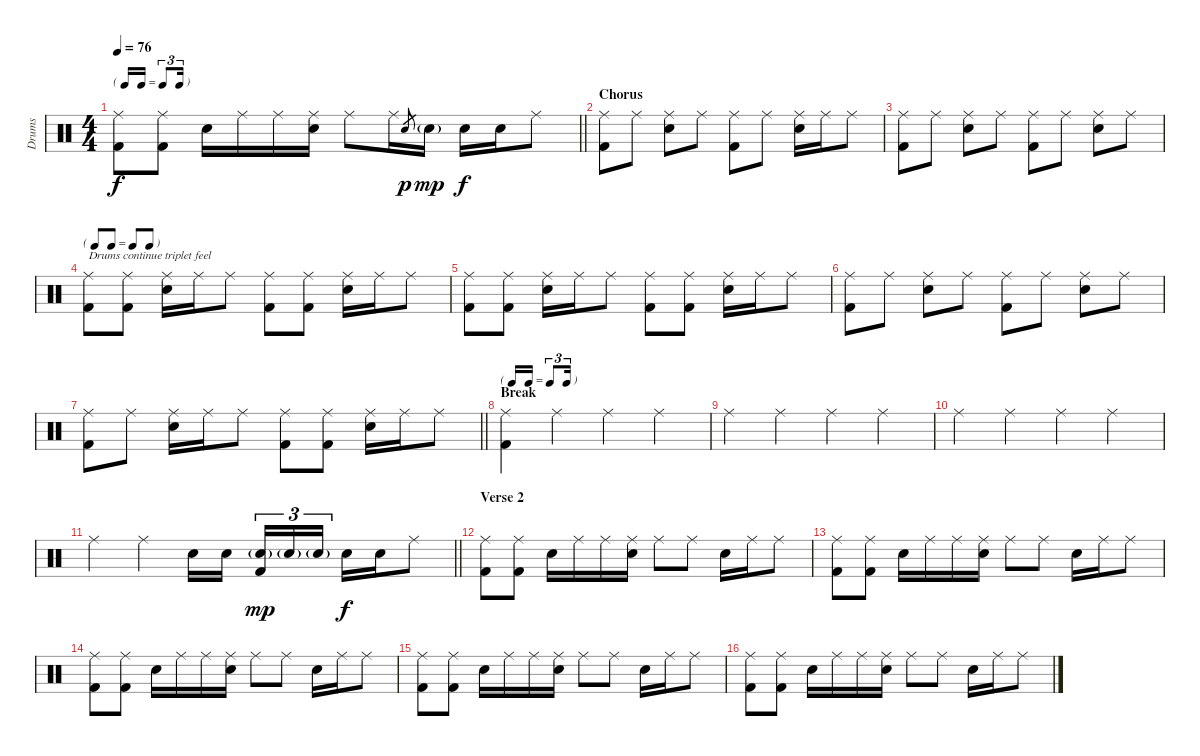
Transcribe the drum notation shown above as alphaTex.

\track ("Drums" "Drums") {instrument percussion}
\staff {score}
\articulation defaults
\ts (4 4)
\tf triplet16th
\tempo 76
\clef neutral
\barLineRight lightlight
\ks c
("Ride (middle)" "Kick (hit) 2").8{dy f} ("Ride (middle)" "Kick (hit) 2").8 "Electric Snare (hit)".16 "Ride (middle)".16 "Ride (middle)".16 ("Ride (middle)" "Electric Snare (hit)").16 "Ride (middle)".8 "Ride (middle)".16 "Electric Snare (hit)".8{gr dy p} "Electric Snare (hit)"{g}.16{dy mp} "Electric Snare (hit)".16{dy f} "Electric Snare (hit)".16 "Ride (middle)".8 |
\section ("" "Chorus")
("Ride (middle)" "Kick (hit) 2").8 "Ride (middle)".8 ("Ride (middle)" "Electric Snare (hit)").8 "Ride (middle)".8 ("Ride (middle)" "Kick (hit) 2").8 "Ride (middle)".8 ("Ride (middle)" "Electric Snare (hit)").16 "Ride (middle)".16 "Ride (middle)".8 |
("Ride (middle)" "Kick (hit) 2").8 "Ride (middle)".8 ("Ride (middle)" "Electric Snare (hit)").8 "Ride (middle)".8 ("Ride (middle)" "Kick (hit) 2").8 "Ride (middle)".8 ("Ride (middle)" "Electric Snare (hit)").8 "Ride (middle)".8 |
\tf none
("Ride (middle)" "Kick (hit) 2").8{txt "Drums continue triplet feel"} ("Ride (middle)" "Kick (hit) 2").8 ("Ride (middle)" "Electric Snare (hit)").16 "Ride (middle)".16 "Ride (middle)".8 ("Ride (middle)" "Kick (hit) 2").8 ("Ride (middle)" "Kick (hit) 2").8 ("Ride (middle)" "Electric Snare (hit)").16 "Ride (middle)".16 "Ride (middle)".8 |
("Ride (middle)" "Kick (hit) 2").8 ("Ride (middle)" "Kick (hit) 2").8 ("Ride (middle)" "Electric Snare (hit)").16 "Ride (middle)".16 "Ride (middle)".8 ("Ride (middle)" "Kick (hit) 2").8 ("Ride (middle)" "Kick (hit) 2").8 ("Ride (middle)" "Electric Snare (hit)").16 "Ride (middle)".16 "Ride (middle)".8 |
("Ride (middle)" "Kick (hit) 2").8 "Ride (middle)".8 ("Ride (middle)" "Electric Snare (hit)").8 "Ride (middle)".8 ("Ride (middle)" "Kick (hit) 2").8 "Ride (middle)".8 ("Ride (middle)" "Electric Snare (hit)").8 "Ride (middle)".8 |
\barLineRight lightlight
("Ride (middle)" "Kick (hit) 2").8 "Ride (middle)".8 ("Ride (middle)" "Electric Snare (hit)").16 "Ride (middle)".16 "Ride (middle)".8 ("Ride (middle)" "Kick (hit) 2").8 ("Ride (middle)" "Kick (hit) 2").8 ("Ride (middle)" "Electric Snare (hit)").16 "Ride (middle)".16 "Ride (middle)".8 |
\tf triplet16th
\section ("" "Break")
("Ride (middle)" "Kick (hit) 2").4 "Ride (middle)".4 "Ride (middle)".4 "Ride (middle)".4 |
"Ride (middle)".4 "Ride (middle)".4 "Ride (middle)".4 "Ride (middle)".4 |
"Ride (middle)".4 "Ride (middle)".4 "Ride (middle)".4 "Ride (middle)".4 |
\barLineRight lightlight "Ride (middle)".4 "Ride (middle)".4 "Electric Snare (hit)".16 "Electric Snare (hit)".16{beam splitsecondary}
("Electric Snare (hit)"{g} "Kick (hit) 2").16{tu (3 2) dy mp} "Electric Snare (hit)"{g}.16{tu (3 2)} "Electric Snare (hit)"{g}.16{tu (3 2)} "Electric Snare (hit)".16{dy f} "Electric Snare (hit)".16 "Ride (middle)".8 |
\section ("" "Verse 2")
("Ride (middle)" "Kick (hit) 2").8 ("Ride (middle)" "Kick (hit) 2").8 "Electric Snare (hit)".16 "Ride (middle)".16 "Ride (middle)".16 ("Ride (middle)" "Electric Snare (hit)").16 "Ride (middle)".8 "Ride (middle)".8 "Electric Snare (hit)".16 "Ride (middle)".16 "Ride (middle)".8 |
("Ride (middle)" "Kick (hit) 2").8 ("Ride (middle)" "Kick (hit) 2").8 "Electric Snare (hit)".16 "Ride (middle)".16 "Ride (middle)".16 ("Ride (middle)" "Electric Snare (hit)").16 "Ride (middle)".8 "Ride (middle)".8 "Electric Snare (hit)".16 "Ride (middle)".16 "Ride (middle)".8 |
("Ride (middle)" "Kick (hit) 2").8 ("Ride (middle)" "Kick (hit) 2").8 "Electric Snare (hit)".16 "Ride (middle)".16 "Ride (middle)".16 ("Ride (middle)" "Electric Snare (hit)").16 "Ride (middle)".8 "Ride (middle)".8 "Electric Snare (hit)".16 "Ride (middle)".16 "Ride (middle)".8 |
("Ride (middle)" "Kick (hit) 2").8 ("Ride (middle)" "Kick (hit) 2").8 "Electric Snare (hit)".16 "Ride (middle)".16 "Ride (middle)".16 ("Ride (middle)" "Electric Snare (hit)").16 "Ride (middle)".8 "Ride (middle)".8 "Electric Snare (hit)".16 "Ride (middle)".16 "Ride (middle)".8 |
("Ride (middle)" "Kick (hit) 2").8 ("Ride (middle)" "Kick (hit) 2").8 "Electric Snare (hit)".16 "Ride (middle)".16 "Ride (middle)".16 ("Ride (middle)" "Electric Snare (hit)").16 "Ride (middle)".8 "Ride (middle)".8 "Electric Snare (hit)".16 "Ride (middle)".16 "Ride (middle)".8
